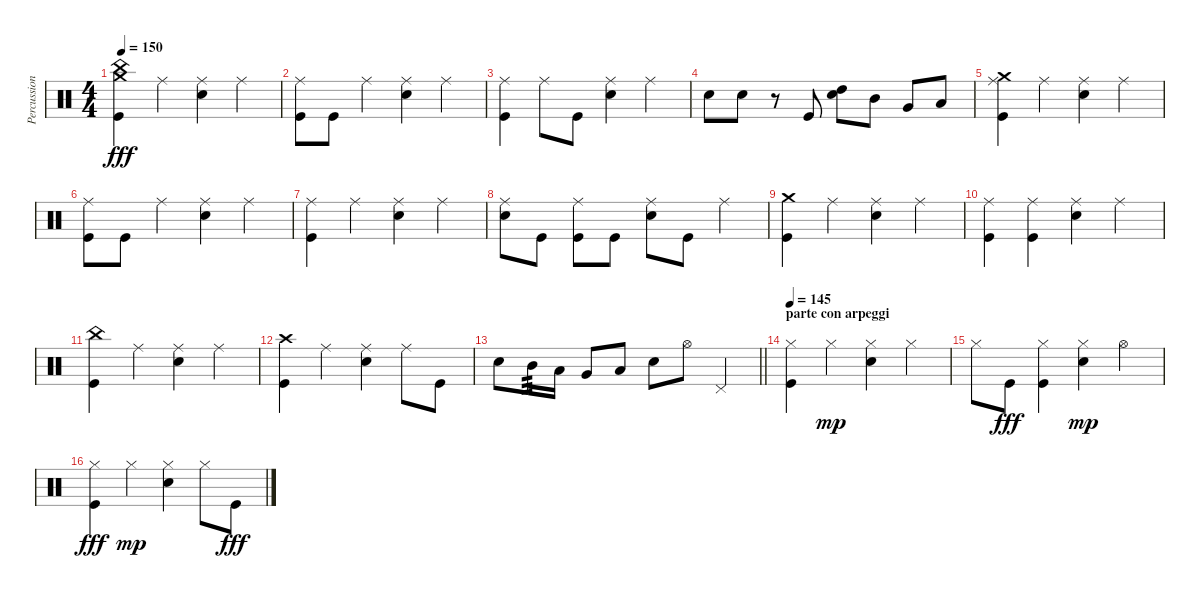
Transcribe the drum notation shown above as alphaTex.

\track ("Percussioni" "Percussion") {instrument percussion}
\staff {score}
\articulation defaults
\ts (4 4)
\tempo 150
\clef neutral
\ks c
("China (hit)" "Crash medium (hit)" "Kick (hit)").4{dy fff} "Ride (middle)".4 ("Ride (middle)" "Snare (hit) 2").4 "Ride (middle)".4 |
("Ride (middle)" "Kick (hit)").8 "Kick (hit)".8 "Ride (middle)".4 ("Ride (middle)" "Snare (hit) 2").4 "Ride (middle)".4 |
("Ride (middle)" "Kick (hit)").4 "Ride (middle)".8 "Kick (hit)".8 ("Ride (middle)" "Snare (hit) 2").4 "Ride (middle)".4 |
"Snare (hit) 2".8 "Snare (hit) 2".8 r.8 "Kick (hit)".8 ("High Tom (hit)" "Snare (hit) 2").8 "Mid Tom (hit)".8 "Very Low Tom (hit)".8 "Low Floor Tom (hit)".8 |
("Crash medium (hit)" "Ride (middle)" "Kick (hit)").4 "Ride (middle)".4 ("Ride (middle)" "Snare (hit) 2").4 "Ride (middle)".4 |
("Ride (middle)" "Kick (hit)").8 "Kick (hit)".8 "Ride (middle)".4 ("Ride (middle)" "Snare (hit) 2").4 "Ride (middle)".4 |
("Ride (middle)" "Kick (hit)").4 "Ride (middle)".4 ("Ride (middle)" "Snare (hit) 2").4 "Ride (middle)".4 |
("Ride (middle)" "Snare (hit) 2").8 "Kick (hit)".8 ("Ride (middle)" "Kick (hit)").8 "Kick (hit)".8 ("Ride (middle)" "Snare (hit) 2").8 "Kick (hit)".8 "Ride (middle)".4 |
("Crash medium (hit)" "Kick (hit)").4 "Ride (middle)".4 ("Ride (middle)" "Snare (hit) 2").4 "Ride (middle)".4 |
("Ride (middle)" "Kick (hit)").4 ("Ride (middle)" "Kick (hit)").4 ("Ride (middle)" "Snare (hit) 2").4 "Ride (middle)".4 |
("China (hit)" "Kick (hit)").4 "Ride (middle)".4 ("Ride (middle)" "Snare (hit) 2").4 "Ride (middle)".4 |
("Crash high (hit)" "Kick (hit)").4 "Ride (middle)".4 ("Ride (middle)" "Snare (hit) 2").4 "Ride (middle)".8 "Kick (hit)".8 |
\barLineRight lightlight "Snare (hit) 2".8 "Mid Tom (hit)".16{tp 3} "Low Tom (hit)".16 "Very Low Tom (hit)".8 "Low Floor Tom (hit)".8 "Snare (hit) 2".8 "Hi-Hat (open)".8 "Pedal Hi-Hat (hit)".4
|
\section ("" "parte con arpeggi")
\tempo 145
("Hi-Hat (closed)" "Kick (hit)").4 "Hi-Hat (closed)".4{dy mp} ("Hi-Hat (closed)" "Snare (hit) 2").4 "Hi-Hat (closed)".4 |
"Hi-Hat (closed)".8 "Kick (hit)".8{dy fff} ("Hi-Hat (closed)" "Kick (hit)").4 ("Hi-Hat (closed)" "Snare (hit) 2").4{dy mp} "Hi-Hat (open)".4 |
("Hi-Hat (closed)" "Kick (hit)").4{dy fff} "Hi-Hat (closed)".4{dy mp} ("Hi-Hat (closed)" "Snare (hit) 2").4 "Hi-Hat (closed)".8 "Kick (hit)".8{dy fff}
